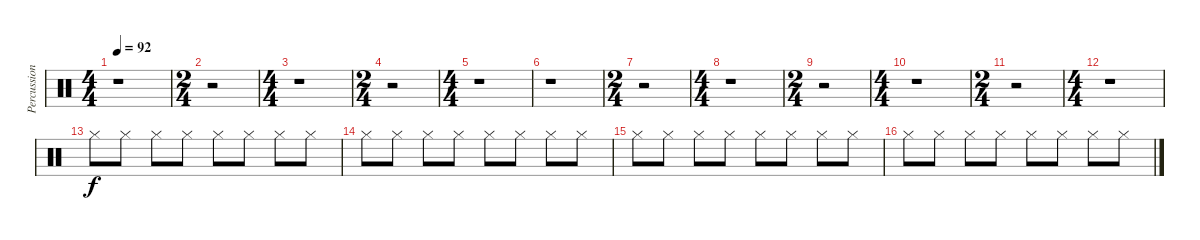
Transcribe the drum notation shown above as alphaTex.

\track ("Percussion" "Percussion") {instrument percussion}
\staff {score}
\articulation defaults
\ts (4 4)
\tempo 92
\clef neutral
\ks c
r.1{dy f} |
\ts (2 4)
r.2 |
\ts (4 4)
r.1 |
\ts (2 4)
r.2 |
\ts (4 4)
r.1 |
r.1 |
\ts (2 4)
r.2 |
\ts (4 4)
r.1 |
\ts (2 4)
r.2 |
\ts (4 4)
r.1 |
\ts (2 4)
r.2 |
\ts (4 4)
r.1 |
"Hi-Hat (closed)".8{volume 12} "Hi-Hat (closed)".8 "Hi-Hat (closed)".8 "Hi-Hat (closed)".8 "Hi-Hat (closed)".8 "Hi-Hat (closed)".8 "Hi-Hat (closed)".8 "Hi-Hat (closed)".8 |
"Hi-Hat (closed)".8 "Hi-Hat (closed)".8 "Hi-Hat (closed)".8 "Hi-Hat (closed)".8 "Hi-Hat (closed)".8 "Hi-Hat (closed)".8 "Hi-Hat (closed)".8 "Hi-Hat (closed)".8 |
"Hi-Hat (closed)".8 "Hi-Hat (closed)".8 "Hi-Hat (closed)".8 "Hi-Hat (closed)".8 "Hi-Hat (closed)".8 "Hi-Hat (closed)".8 "Hi-Hat (closed)".8 "Hi-Hat (closed)".8 |
"Hi-Hat (closed)".8 "Hi-Hat (closed)".8 "Hi-Hat (closed)".8 "Hi-Hat (closed)".8 "Hi-Hat (closed)".8 "Hi-Hat (closed)".8 "Hi-Hat (closed)".8 "Hi-Hat (closed)".8
